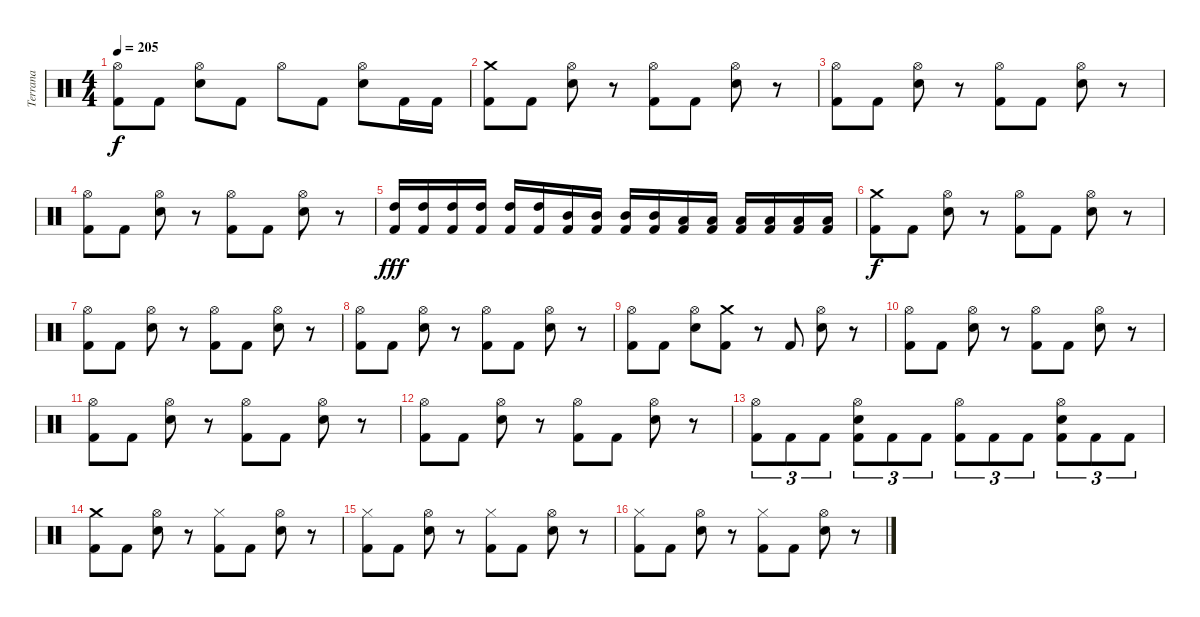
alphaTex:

\track ("Terrana" "Terrana") {instrument percussion}
\staff {score}
\articulation defaults
\ts (4 4)
\tempo 205
\clef neutral
\ks c
("Hi-Hat (open)" "Kick (hit) 2").8{dy f} "Kick (hit) 2".8 ("Hi-Hat (open)" "Electric Snare (hit)").8 "Kick (hit) 2".8 "Hi-Hat (open)".8 "Kick (hit) 2".8 ("Hi-Hat (open)" "Electric Snare (hit)").8 "Kick (hit) 2".16 "Kick (hit) 2".16 |
("Crash medium (hit)" "Kick (hit) 2").8 "Kick (hit) 2".8 ("Hi-Hat (open)" "Electric Snare (hit)").8 r.8 ("Hi-Hat (open)" "Kick (hit) 2").8 "Kick (hit) 2".8 ("Hi-Hat (open)" "Electric Snare (hit)").8 r.8 |
("Hi-Hat (open)" "Kick (hit) 2").8 "Kick (hit) 2".8 ("Hi-Hat (open)" "Electric Snare (hit)").8 r.8 ("Hi-Hat (open)" "Kick (hit) 2").8 "Kick (hit) 2".8 ("Hi-Hat (open)" "Electric Snare (hit)").8 r.8 |
("Hi-Hat (open)" "Kick (hit) 2").8 "Kick (hit) 2".8 ("Hi-Hat (open)" "Electric Snare (hit)").8 r.8 ("Hi-Hat (open)" "Kick (hit) 2").8 "Kick (hit) 2".8 ("Hi-Hat (open)" "Electric Snare (hit)").8 r.8 |
("High Tom (hit)" "Kick (hit) 2").16{dy fff} ("High Tom (hit)" "Kick (hit) 2").16 ("High Tom (hit)" "Kick (hit) 2").16 ("High Tom (hit)" "Kick (hit) 2").16 ("High Tom (hit)" "Kick (hit) 2").16 ("High Tom (hit)" "Kick (hit) 2").16 ("Mid Tom (hit)" "Kick (hit) 2").16 ("Mid Tom (hit)" "Kick (hit) 2").16 ("Mid Tom (hit)" "Kick (hit) 2").16 ("Mid Tom (hit)" "Kick (hit) 2").16 ("Low Tom (hit)" "Kick (hit) 2").16 ("Low Tom (hit)" "Kick (hit) 2").16 ("Low Tom (hit)" "Kick (hit) 2").16 ("Low Floor Tom (hit)" "Kick (hit) 2").16 ("Low Floor Tom (hit)" "Kick (hit) 2").16 ("Low Floor Tom (hit)" "Kick (hit) 2").16 |
("Crash medium (hit)" "Kick (hit) 2").8{dy f} "Kick (hit) 2".8 ("Hi-Hat (open)" "Electric Snare (hit)").8 r.8 ("Hi-Hat (open)" "Kick (hit) 2").8 "Kick (hit) 2".8 ("Hi-Hat (open)" "Electric Snare (hit)").8 r.8 |
("Hi-Hat (open)" "Kick (hit) 2").8 "Kick (hit) 2".8 ("Hi-Hat (open)" "Electric Snare (hit)").8 r.8 ("Hi-Hat (open)" "Kick (hit) 2").8 "Kick (hit) 2".8 ("Hi-Hat (open)" "Electric Snare (hit)").8 r.8 |
("Hi-Hat (open)" "Kick (hit) 2").8 "Kick (hit) 2".8 ("Hi-Hat (open)" "Electric Snare (hit)").8 r.8 ("Hi-Hat (open)" "Kick (hit) 2").8 "Kick (hit) 2".8 ("Hi-Hat (open)" "Electric Snare (hit)").8 r.8 |
("Hi-Hat (open)" "Kick (hit) 2").8 "Kick (hit) 2".8 ("Hi-Hat (open)" "Electric Snare (hit)").8 ("Crash medium (hit)" "Kick (hit) 2").8 r.8 "Kick (hit) 2".8 ("Hi-Hat (open)" "Electric Snare (hit)").8 r.8 |
("Hi-Hat (open)" "Kick (hit) 2").8 "Kick (hit) 2".8 ("Hi-Hat (open)" "Electric Snare (hit)").8 r.8 ("Hi-Hat (open)" "Kick (hit) 2").8 "Kick (hit) 2".8 ("Hi-Hat (open)" "Electric Snare (hit)").8 r.8 |
("Hi-Hat (open)" "Kick (hit) 2").8 "Kick (hit) 2".8 ("Hi-Hat (open)" "Electric Snare (hit)").8 r.8 ("Hi-Hat (open)" "Kick (hit) 2").8 "Kick (hit) 2".8 ("Hi-Hat (open)" "Electric Snare (hit)").8 r.8 |
("Hi-Hat (open)" "Kick (hit) 2").8 "Kick (hit) 2".8 ("Hi-Hat (open)" "Electric Snare (hit)").8 r.8 ("Hi-Hat (open)" "Kick (hit) 2").8 "Kick (hit) 2".8 ("Hi-Hat (open)" "Electric Snare (hit)").8 r.8 |
("Hi-Hat (open)" "Kick (hit) 2").8{tu (3 2)} "Kick (hit) 2".8{tu (3 2)} "Kick (hit) 2".8{tu (3 2)} ("Hi-Hat (open)" "Kick (hit) 2" "Electric Snare (hit)").8{tu (3 2)} "Kick (hit) 2".8{tu (3 2)} "Kick (hit) 2".8{tu (3 2)} ("Hi-Hat (open)" "Kick (hit) 2").8{tu (3 2)} "Kick (hit) 2".8{tu (3 2)} "Kick (hit) 2".8{tu (3 2)} ("Hi-Hat (open)" "Kick (hit) 2" "Electric Snare (hit)").8{tu (3 2)} "Kick (hit) 2".8{tu (3 2)} "Kick (hit) 2".8{tu (3 2)} |
("Crash medium (hit)" "Kick (hit) 2").8 "Kick (hit) 2".8 ("Hi-Hat (open)" "Electric Snare (hit)").8 r.8 ("Hi-Hat (closed)" "Kick (hit) 2").8 "Kick (hit) 2".8 ("Hi-Hat (open)" "Electric Snare (hit)").8 r.8 |
("Hi-Hat (closed)" "Kick (hit) 2").8 "Kick (hit) 2".8 ("Hi-Hat (open)" "Electric Snare (hit)").8 r.8 ("Hi-Hat (closed)" "Kick (hit) 2").8 "Kick (hit) 2".8 ("Hi-Hat (open)" "Electric Snare (hit)").8 r.8 |
("Hi-Hat (closed)" "Kick (hit) 2").8 "Kick (hit) 2".8 ("Hi-Hat (open)" "Electric Snare (hit)").8 r.8 ("Hi-Hat (closed)" "Kick (hit) 2").8 "Kick (hit) 2".8 ("Hi-Hat (open)" "Electric Snare (hit)").8 r.8
